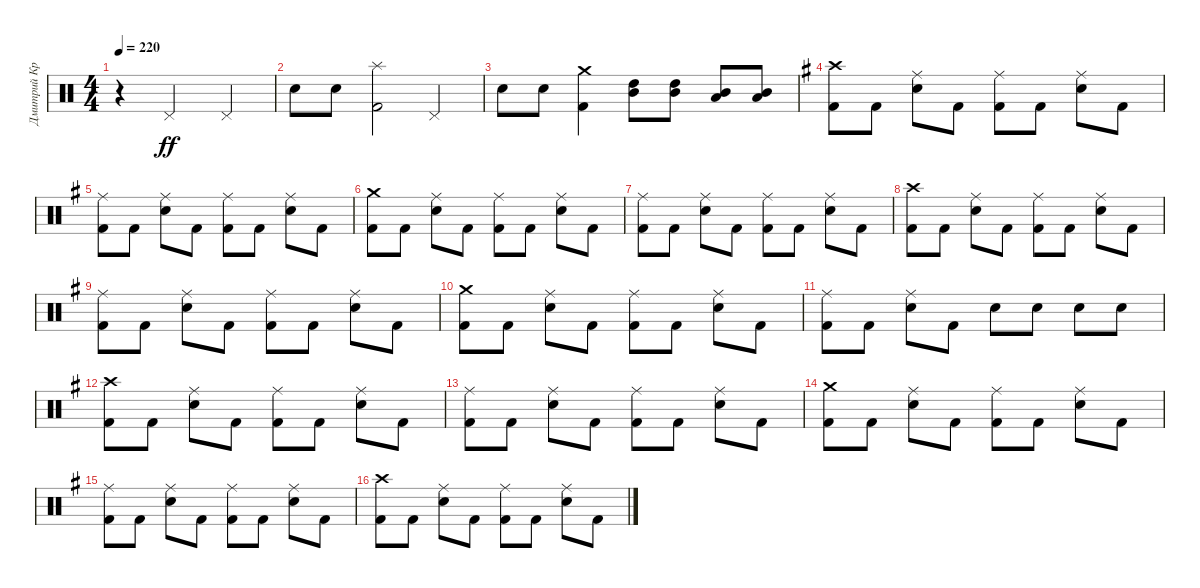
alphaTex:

\track ("Дмитрий Кривенков" "Дмитрий Кр") {instrument percussion}
\staff {score}
\articulation defaults
\ts (4 4)
\tempo 220
\clef neutral
\ks c
r.4{dy ff} "Pedal Hi-Hat (hit)".2 "Pedal Hi-Hat (hit)".4 |
"Snare (hit) 2".8 "Snare (hit) 2".8 ("Splash (hit)" "Kick (hit) 2").2 "Pedal Hi-Hat (hit)".4 |
"Snare (hit) 2".8 "Snare (hit) 2".8 ("Crash medium (hit)" "Kick (hit) 2").4 ("Mid Tom (hit)" "High Tom (hit)").8 ("Mid Tom (hit)" "High Tom (hit)").8 ("Low Tom (hit)" "Mid Tom (hit)").8 ("Mid Tom (hit)" "Low Tom (hit)").8 |
\ks g
("Crash high (hit)" "Kick (hit) 2").8 "Kick (hit) 2".8 ("Ride (middle)" "Snare (hit) 2").8 "Kick (hit) 2".8 ("Ride (middle)" "Kick (hit) 2").8 "Kick (hit) 2".8 ("Ride (middle)" "Snare (hit) 2").8 "Kick (hit) 2".8 |
("Ride (middle)" "Kick (hit) 2").8 "Kick (hit) 2".8 ("Ride (middle)" "Snare (hit) 2").8 "Kick (hit) 2".8 ("Ride (middle)" "Kick (hit) 2").8 "Kick (hit) 2".8 ("Ride (middle)" "Snare (hit) 2").8 "Kick (hit) 2".8 |
("Crash medium (hit)" "Kick (hit) 2").8 "Kick (hit) 2".8 ("Ride (middle)" "Snare (hit) 2").8 "Kick (hit) 2".8 ("Ride (middle)" "Kick (hit) 2").8 "Kick (hit) 2".8 ("Ride (middle)" "Snare (hit) 2").8 "Kick (hit) 2".8 |
("Ride (middle)" "Kick (hit) 2").8 "Kick (hit) 2".8 ("Ride (middle)" "Snare (hit) 2").8 "Kick (hit) 2".8 ("Ride (middle)" "Kick (hit) 2").8 "Kick (hit) 2".8 ("Ride (middle)" "Snare (hit) 2").8 "Kick (hit) 2".8 |
("Crash high (hit)" "Kick (hit) 2").8 "Kick (hit) 2".8 ("Ride (middle)" "Snare (hit) 2").8 "Kick (hit) 2".8 ("Ride (middle)" "Kick (hit) 2").8 "Kick (hit) 2".8 ("Ride (middle)" "Snare (hit) 2").8 "Kick (hit) 2".8 |
("Ride (middle)" "Kick (hit) 2").8 "Kick (hit) 2".8 ("Ride (middle)" "Snare (hit) 2").8 "Kick (hit) 2".8 ("Ride (middle)" "Kick (hit) 2").8 "Kick (hit) 2".8 ("Ride (middle)" "Snare (hit) 2").8 "Kick (hit) 2".8 |
("Crash medium (hit)" "Kick (hit) 2").8 "Kick (hit) 2".8 ("Ride (middle)" "Snare (hit) 2").8 "Kick (hit) 2".8 ("Ride (middle)" "Kick (hit) 2").8 "Kick (hit) 2".8 ("Ride (middle)" "Snare (hit) 2").8 "Kick (hit) 2".8 |
("Ride (middle)" "Kick (hit) 2").8 "Kick (hit) 2".8 ("Ride (middle)" "Snare (hit) 2").8 "Kick (hit) 2".8 "Snare (hit) 2".8 "Snare (hit) 2".8 "Snare (hit) 2".8 "Snare (hit) 2".8 |
("Crash high (hit)" "Kick (hit) 2").8 "Kick (hit) 2".8 ("Ride (middle)" "Snare (hit) 2").8 "Kick (hit) 2".8 ("Ride (middle)" "Kick (hit) 2").8 "Kick (hit) 2".8 ("Ride (middle)" "Snare (hit) 2").8 "Kick (hit) 2".8 |
("Ride (middle)" "Kick (hit) 2").8 "Kick (hit) 2".8 ("Ride (middle)" "Snare (hit) 2").8 "Kick (hit) 2".8 ("Ride (middle)" "Kick (hit) 2").8 "Kick (hit) 2".8 ("Ride (middle)" "Snare (hit) 2").8 "Kick (hit) 2".8 |
("Crash medium (hit)" "Kick (hit) 2").8 "Kick (hit) 2".8 ("Ride (middle)" "Snare (hit) 2").8 "Kick (hit) 2".8 ("Ride (middle)" "Kick (hit) 2").8 "Kick (hit) 2".8 ("Ride (middle)" "Snare (hit) 2").8 "Kick (hit) 2".8 |
("Ride (middle)" "Kick (hit) 2").8 "Kick (hit) 2".8 ("Ride (middle)" "Snare (hit) 2").8 "Kick (hit) 2".8 ("Ride (middle)" "Kick (hit) 2").8 "Kick (hit) 2".8 ("Ride (middle)" "Snare (hit) 2").8 "Kick (hit) 2".8 |
("Crash high (hit)" "Kick (hit) 2").8 "Kick (hit) 2".8 ("Ride (middle)" "Snare (hit) 2").8 "Kick (hit) 2".8 ("Ride (middle)" "Kick (hit) 2").8 "Kick (hit) 2".8 ("Ride (middle)" "Snare (hit) 2").8 "Kick (hit) 2".8
